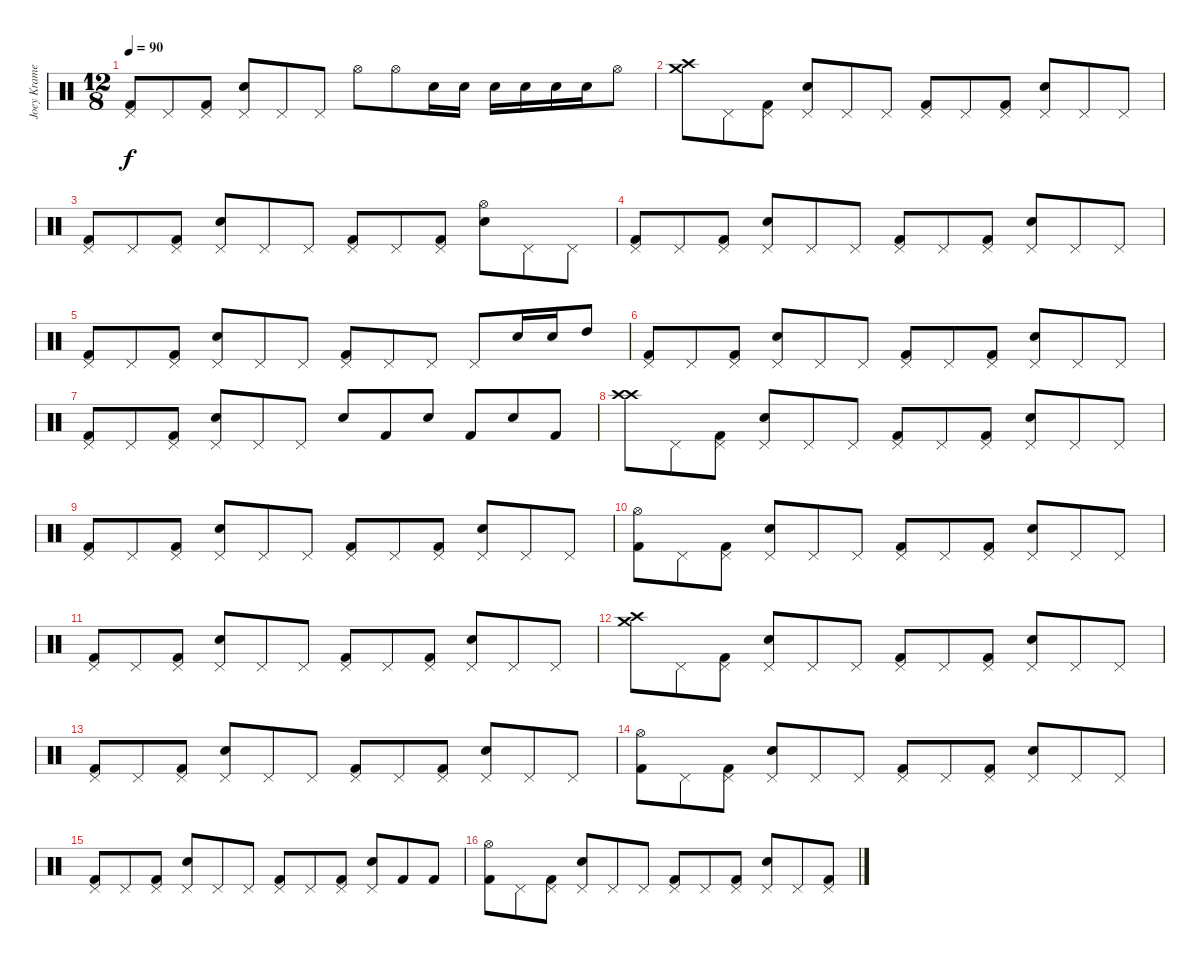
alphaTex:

\track ("Joey Kramer" "Joey Krame") {instrument percussion}
\staff {score}
\articulation defaults
\ts (12 8)
\tempo 90
\clef neutral
\ks c
("Pedal Hi-Hat (hit)" "Kick (hit) 2").8{dy f} "Pedal Hi-Hat (hit)".8 ("Pedal Hi-Hat (hit)" "Kick (hit) 2").8 ("Pedal Hi-Hat (hit)" "Snare (hit) 2").8 "Pedal Hi-Hat (hit)".8 "Pedal Hi-Hat (hit)".8 "Hi-Hat (open)".8 "Hi-Hat (open)".8 "Snare (hit) 2".16 "Snare (hit) 2".16 "Snare (hit) 2".16 "Snare (hit) 2".16 "Snare (hit) 2".16 "Snare (hit) 2".16 "Hi-Hat (open)".8 |
("Crash high (hit)" "Crash medium (hit)").8 "Pedal Hi-Hat (hit)".8 ("Pedal Hi-Hat (hit)" "Kick (hit) 2").8 ("Pedal Hi-Hat (hit)" "Snare (hit) 2").8 "Pedal Hi-Hat (hit)".8 "Pedal Hi-Hat (hit)".8 ("Pedal Hi-Hat (hit)" "Kick (hit) 2").8 "Pedal Hi-Hat (hit)".8 ("Pedal Hi-Hat (hit)" "Kick (hit) 2").8 ("Pedal Hi-Hat (hit)" "Snare (hit) 2").8 "Pedal Hi-Hat (hit)".8 "Pedal Hi-Hat (hit)".8 |
("Pedal Hi-Hat (hit)" "Kick (hit) 2").8 "Pedal Hi-Hat (hit)".8 ("Pedal Hi-Hat (hit)" "Kick (hit) 2").8 ("Pedal Hi-Hat (hit)" "Snare (hit) 2").8 "Pedal Hi-Hat (hit)".8 "Pedal Hi-Hat (hit)".8 ("Pedal Hi-Hat (hit)" "Kick (hit) 2").8 "Pedal Hi-Hat (hit)".8 ("Pedal Hi-Hat (hit)" "Kick (hit) 2").8 ("Hi-Hat (open)" "Snare (hit) 2").8 "Pedal Hi-Hat (hit)".8 "Pedal Hi-Hat (hit)".8 |
("Pedal Hi-Hat (hit)" "Kick (hit) 2").8 "Pedal Hi-Hat (hit)".8 ("Pedal Hi-Hat (hit)" "Kick (hit) 2").8 ("Pedal Hi-Hat (hit)" "Snare (hit) 2").8 "Pedal Hi-Hat (hit)".8 "Pedal Hi-Hat (hit)".8 ("Pedal Hi-Hat (hit)" "Kick (hit) 2").8 "Pedal Hi-Hat (hit)".8 ("Pedal Hi-Hat (hit)" "Kick (hit) 2").8 ("Pedal Hi-Hat (hit)" "Snare (hit) 2").8 "Pedal Hi-Hat (hit)".8 "Pedal Hi-Hat (hit)".8 |
("Pedal Hi-Hat (hit)" "Kick (hit) 2").8 "Pedal Hi-Hat (hit)".8 ("Pedal Hi-Hat (hit)" "Kick (hit) 2").8 ("Pedal Hi-Hat (hit)" "Snare (hit) 2").8 "Pedal Hi-Hat (hit)".8 "Pedal Hi-Hat (hit)".8 ("Pedal Hi-Hat (hit)" "Kick (hit) 2").8 "Pedal Hi-Hat (hit)".8 "Pedal Hi-Hat (hit)".8 "Pedal Hi-Hat (hit)".8 "Snare (hit) 2".16 "Snare (hit) 2".16 "High Tom (hit)".8 |
("Pedal Hi-Hat (hit)" "Kick (hit) 2").8 "Pedal Hi-Hat (hit)".8 ("Pedal Hi-Hat (hit)" "Kick (hit) 2").8 ("Pedal Hi-Hat (hit)" "Snare (hit) 2").8 "Pedal Hi-Hat (hit)".8 "Pedal Hi-Hat (hit)".8 ("Pedal Hi-Hat (hit)" "Kick (hit) 2").8 "Pedal Hi-Hat (hit)".8 ("Pedal Hi-Hat (hit)" "Kick (hit) 2").8 ("Pedal Hi-Hat (hit)" "Snare (hit) 2").8 "Pedal Hi-Hat (hit)".8 "Pedal Hi-Hat (hit)".8 |
("Pedal Hi-Hat (hit)" "Kick (hit) 2").8 "Pedal Hi-Hat (hit)".8 ("Pedal Hi-Hat (hit)" "Kick (hit) 2").8 ("Pedal Hi-Hat (hit)" "Snare (hit) 2").8 "Pedal Hi-Hat (hit)".8 "Pedal Hi-Hat (hit)".8 "Snare (hit) 2".8 "Kick (hit) 2".8 "Snare (hit) 2".8 "Kick (hit) 2".8 "Snare (hit) 2".8 "Kick (hit) 2".8 |
("Crash high (hit)" "Crash high (hit)").8 "Pedal Hi-Hat (hit)".8 ("Pedal Hi-Hat (hit)" "Kick (hit) 2").8 ("Pedal Hi-Hat (hit)" "Snare (hit) 2").8 "Pedal Hi-Hat (hit)".8 "Pedal Hi-Hat (hit)".8 ("Pedal Hi-Hat (hit)" "Kick (hit) 2").8 "Pedal Hi-Hat (hit)".8 ("Pedal Hi-Hat (hit)" "Kick (hit) 2").8 ("Pedal Hi-Hat (hit)" "Snare (hit) 2").8 "Pedal Hi-Hat (hit)".8 "Pedal Hi-Hat (hit)".8 |
("Pedal Hi-Hat (hit)" "Kick (hit) 2").8 "Pedal Hi-Hat (hit)".8 ("Pedal Hi-Hat (hit)" "Kick (hit) 2").8 ("Pedal Hi-Hat (hit)" "Snare (hit) 2").8 "Pedal Hi-Hat (hit)".8 "Pedal Hi-Hat (hit)".8 ("Pedal Hi-Hat (hit)" "Kick (hit) 2").8 "Pedal Hi-Hat (hit)".8 ("Pedal Hi-Hat (hit)" "Kick (hit) 2").8 ("Pedal Hi-Hat (hit)" "Snare (hit) 2").8 "Pedal Hi-Hat (hit)".8 "Pedal Hi-Hat (hit)".8 |
("Hi-Hat (open)" "Kick (hit) 2").8 "Pedal Hi-Hat (hit)".8 ("Pedal Hi-Hat (hit)" "Kick (hit) 2").8 ("Pedal Hi-Hat (hit)" "Snare (hit) 2").8 "Pedal Hi-Hat (hit)".8 "Pedal Hi-Hat (hit)".8 ("Pedal Hi-Hat (hit)" "Kick (hit) 2").8 "Pedal Hi-Hat (hit)".8 ("Pedal Hi-Hat (hit)" "Kick (hit) 2").8 ("Pedal Hi-Hat (hit)" "Snare (hit) 2").8 "Pedal Hi-Hat (hit)".8 "Pedal Hi-Hat (hit)".8 |
("Pedal Hi-Hat (hit)" "Kick (hit) 2").8 "Pedal Hi-Hat (hit)".8 ("Pedal Hi-Hat (hit)" "Kick (hit) 2").8 ("Pedal Hi-Hat (hit)" "Snare (hit) 2").8 "Pedal Hi-Hat (hit)".8 "Pedal Hi-Hat (hit)".8 ("Pedal Hi-Hat (hit)" "Kick (hit) 2").8 "Pedal Hi-Hat (hit)".8 ("Pedal Hi-Hat (hit)" "Kick (hit) 2").8 ("Pedal Hi-Hat (hit)" "Snare (hit) 2").8 "Pedal Hi-Hat (hit)".8 "Pedal Hi-Hat (hit)".8 |
("Crash high (hit)" "Crash medium (hit)").8 "Pedal Hi-Hat (hit)".8 ("Pedal Hi-Hat (hit)" "Kick (hit) 2").8 ("Pedal Hi-Hat (hit)" "Snare (hit) 2").8 "Pedal Hi-Hat (hit)".8 "Pedal Hi-Hat (hit)".8 ("Pedal Hi-Hat (hit)" "Kick (hit) 2").8 "Pedal Hi-Hat (hit)".8 ("Pedal Hi-Hat (hit)" "Kick (hit) 2").8 ("Pedal Hi-Hat (hit)" "Snare (hit) 2").8 "Pedal Hi-Hat (hit)".8 "Pedal Hi-Hat (hit)".8 |
("Pedal Hi-Hat (hit)" "Kick (hit) 2").8 "Pedal Hi-Hat (hit)".8 ("Pedal Hi-Hat (hit)" "Kick (hit) 2").8 ("Pedal Hi-Hat (hit)" "Snare (hit) 2").8 "Pedal Hi-Hat (hit)".8 "Pedal Hi-Hat (hit)".8 ("Pedal Hi-Hat (hit)" "Kick (hit) 2").8 "Pedal Hi-Hat (hit)".8 ("Pedal Hi-Hat (hit)" "Kick (hit) 2").8 ("Pedal Hi-Hat (hit)" "Snare (hit) 2").8 "Pedal Hi-Hat (hit)".8 "Pedal Hi-Hat (hit)".8 |
("Hi-Hat (open)" "Kick (hit) 2").8 "Pedal Hi-Hat (hit)".8 ("Pedal Hi-Hat (hit)" "Kick (hit) 2").8 ("Pedal Hi-Hat (hit)" "Snare (hit) 2").8 "Pedal Hi-Hat (hit)".8 "Pedal Hi-Hat (hit)".8 ("Pedal Hi-Hat (hit)" "Kick (hit) 2").8 "Pedal Hi-Hat (hit)".8 ("Pedal Hi-Hat (hit)" "Kick (hit) 2").8 ("Pedal Hi-Hat (hit)" "Snare (hit) 2").8 "Pedal Hi-Hat (hit)".8 "Pedal Hi-Hat (hit)".8 |
("Pedal Hi-Hat (hit)" "Kick (hit) 2").8 "Pedal Hi-Hat (hit)".8 ("Pedal Hi-Hat (hit)" "Kick (hit) 2").8 ("Pedal Hi-Hat (hit)" "Snare (hit) 2").8 "Pedal Hi-Hat (hit)".8 "Pedal Hi-Hat (hit)".8 ("Pedal Hi-Hat (hit)" "Kick (hit) 2").8 "Pedal Hi-Hat (hit)".8 ("Pedal Hi-Hat (hit)" "Kick (hit) 2").8 ("Pedal Hi-Hat (hit)" "Snare (hit) 2").8 "Kick (hit) 2".8 "Kick (hit) 2".8 |
("Hi-Hat (open)" "Kick (hit) 2").8 "Pedal Hi-Hat (hit)".8 ("Pedal Hi-Hat (hit)" "Kick (hit) 2").8 ("Pedal Hi-Hat (hit)" "Snare (hit) 2").8 "Pedal Hi-Hat (hit)".8 "Pedal Hi-Hat (hit)".8 ("Pedal Hi-Hat (hit)" "Kick (hit) 2").8 "Pedal Hi-Hat (hit)".8 ("Pedal Hi-Hat (hit)" "Kick (hit) 2").8 ("Pedal Hi-Hat (hit)" "Snare (hit) 2").8 "Pedal Hi-Hat (hit)".8 ("Pedal Hi-Hat (hit)" "Kick (hit) 2").8
